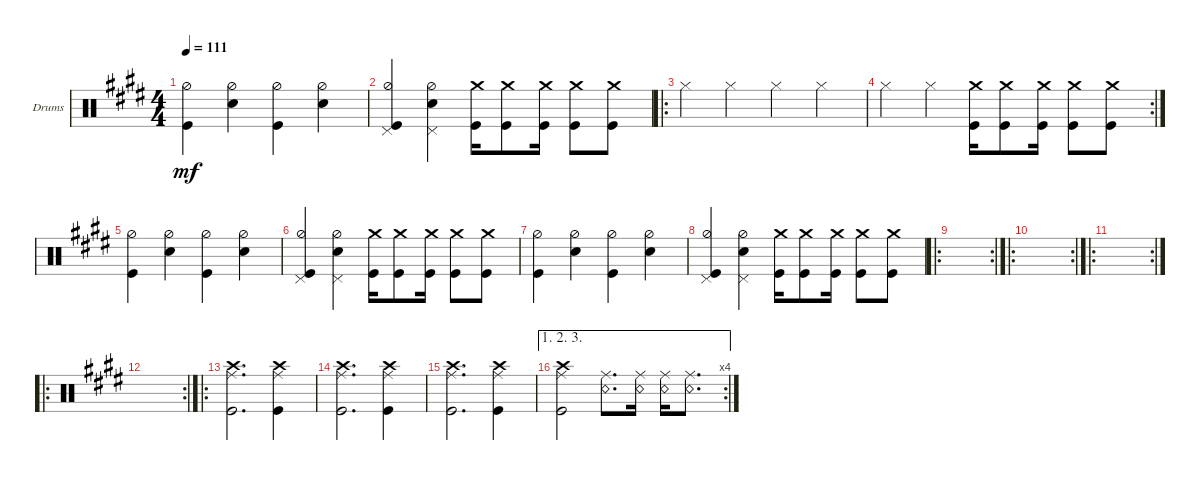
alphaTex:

\defaultSystemsLayout 4
\bracketExtendMode groupsimilarinstruments
\firstSystemTrackNameOrientation horizontal
\otherSystemsTrackNameOrientation horizontal
\track ("Drumkit" "Drums") {multiBarRest instrument percussion}
\staff {score}
\articulation defaults
\ts (4 4)
\tempo 111
\clef neutral
\ks e
("Kick (hit)" "Hi-Hat (half)").4{dy mf} ("Snare (hit) 2" "Hi-Hat (half)").4 ("Kick (hit)" "Hi-Hat (half)").4 ("Snare (hit) 2" "Hi-Hat (half)").4 |
("Kick (hit)" "Pedal Hi-Hat (hit)" "Hi-Hat (half)").4 ("Snare (hit) 2" "Pedal Hi-Hat (hit)" "Hi-Hat (half)").4 ("Kick (hit)" "Crash medium (hit)").16 ("Kick (hit)" "Crash medium (hit)").8 ("Kick (hit)" "Crash medium (hit)").16 ("Kick (hit)" "Crash medium (hit)").8 ("Kick (hit)" "Crash medium (hit)").8 |
\ro "Hi-Hat (closed)".4 "Hi-Hat (closed)".4 "Hi-Hat (closed)".4 "Hi-Hat (closed)".4
|
\rc 2 "Hi-Hat (closed)".4 "Hi-Hat (closed)".4
("Kick (hit)" "Crash medium (hit)").16 ("Kick (hit)" "Crash medium (hit)").8 ("Kick (hit)" "Crash medium (hit)").16 ("Kick (hit)" "Crash medium (hit)").8 ("Kick (hit)" "Crash medium (hit)").8 |
("Kick (hit)" "Hi-Hat (half)").4 ("Snare (hit) 2" "Hi-Hat (half)").4 ("Kick (hit)" "Hi-Hat (half)").4 ("Snare (hit) 2" "Hi-Hat (half)").4 |
("Kick (hit)" "Pedal Hi-Hat (hit)" "Hi-Hat (half)").4 ("Snare (hit) 2" "Pedal Hi-Hat (hit)" "Hi-Hat (half)").4 ("Kick (hit)" "Crash medium (hit)").16 ("Kick (hit)" "Crash medium (hit)").8 ("Kick (hit)" "Crash medium (hit)").16 ("Kick (hit)" "Crash medium (hit)").8 ("Kick (hit)" "Crash medium (hit)").8 |
("Kick (hit)" "Hi-Hat (half)").4 ("Snare (hit) 2" "Hi-Hat (half)").4 ("Kick (hit)" "Hi-Hat (half)").4 ("Snare (hit) 2" "Hi-Hat (half)").4 |
("Kick (hit)" "Pedal Hi-Hat (hit)" "Hi-Hat (half)").4 ("Snare (hit) 2" "Pedal Hi-Hat (hit)" "Hi-Hat (half)").4 ("Kick (hit)" "Crash medium (hit)").16 ("Kick (hit)" "Crash medium (hit)").8 ("Kick (hit)" "Crash medium (hit)").16 ("Kick (hit)" "Crash medium (hit)").8 ("Kick (hit)" "Crash medium (hit)").8 |
\ro
\rc 2
|
\ro
\rc 2
|
\ro
\rc 2
|
\ro
\rc 2
|
\ro
("Kick (hit)" "Ride (middle)" "Crash high (hit)").2{d} ("Kick (hit)" "Ride (middle)" "Crash high (hit)").4 |
("Kick (hit)" "Ride (middle)" "Crash high (hit)").2{d} ("Kick (hit)" "Ride (middle)" "Crash high (hit)").4 |
("Kick (hit)" "Ride (middle)" "Crash high (hit)").2{d} ("Kick (hit)" "Ride (middle)" "Crash high (hit)").4 |
\ae (1 2 3)
\rc 4
("Kick (hit)" "Ride (middle)" "Crash high (hit)").2 ("Snare (rim shot)" "Ride (middle)").8{d} ("Snare (rim shot)" "Ride (middle)").16 ("Snare (rim shot)" "Ride (middle)").16 ("Snare (rim shot)" "Ride (middle)").8{d}
